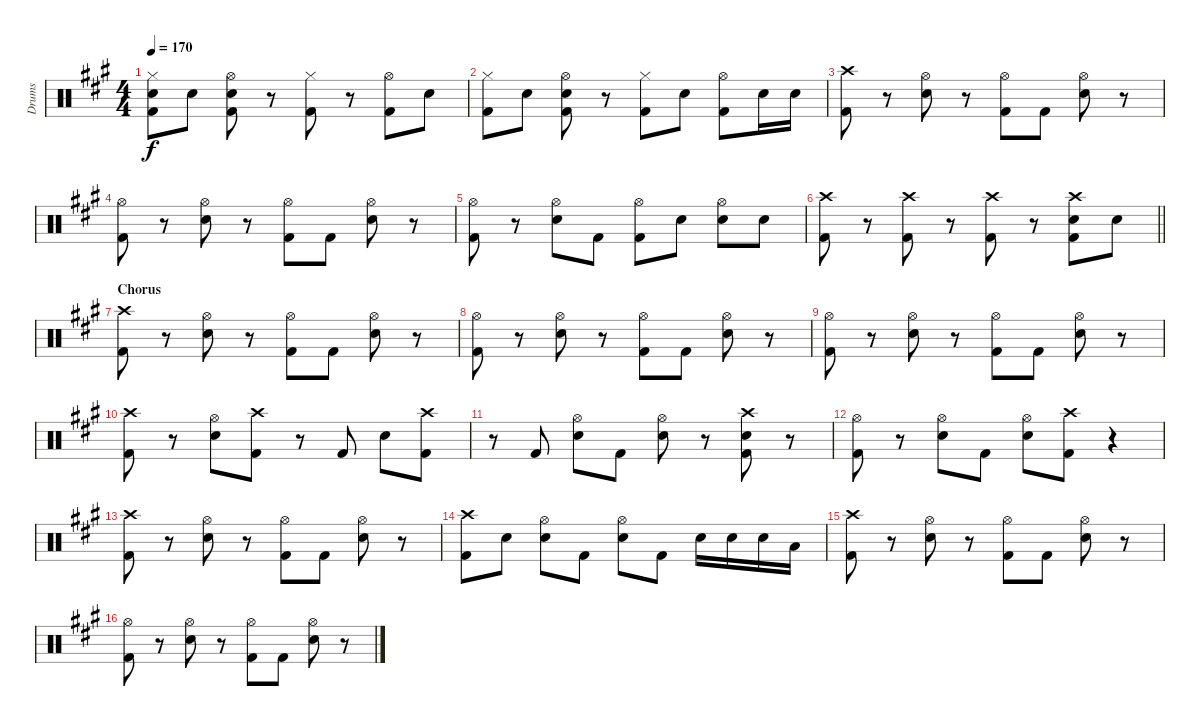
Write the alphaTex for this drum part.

\track ("Drums" "Drums") {instrument percussion}
\staff {score}
\articulation defaults
\ts (4 4)
\tempo 170
\clef neutral
\ks a
("Hi-Hat (closed)" "Snare (hit) 2" "Kick (hit) 2").8{dy f} "Snare (hit) 2".8 ("Hi-Hat (open)" "Snare (hit) 2" "Kick (hit) 2").8 r.8 ("Hi-Hat (closed)" "Kick (hit) 2").8 r.8 ("Hi-Hat (open)" "Kick (hit) 2").8 "Snare (hit) 2".8 |
("Hi-Hat (closed)" "Kick (hit) 2").8 "Snare (hit) 2".8 ("Hi-Hat (open)" "Snare (hit) 2" "Kick (hit) 2").8 r.8 ("Hi-Hat (closed)" "Kick (hit) 2").8 "Snare (hit) 2".8 ("Hi-Hat (open)" "Kick (hit) 2").8 "Snare (hit) 2".16 "Snare (hit) 2".16 |
("Crash high (hit)" "Kick (hit) 2").8 r.8 ("Hi-Hat (open)" "Snare (hit) 2").8 r.8 ("Hi-Hat (open)" "Kick (hit) 2").8 "Kick (hit) 2".8 ("Hi-Hat (open)" "Snare (hit) 2").8 r.8 |
("Hi-Hat (open)" "Kick (hit) 2").8 r.8 ("Hi-Hat (open)" "Snare (hit) 2").8 r.8 ("Hi-Hat (open)" "Kick (hit) 2").8 "Kick (hit) 2".8 ("Hi-Hat (open)" "Snare (hit) 2").8 r.8 |
("Hi-Hat (open)" "Kick (hit) 2").8 r.8 ("Hi-Hat (open)" "Snare (hit) 2").8 "Kick (hit) 2".8 ("Hi-Hat (open)" "Kick (hit) 2").8 "Snare (hit) 2".8 ("Hi-Hat (open)" "Snare (hit) 2").8 "Snare (hit) 2".8 |
\barLineRight lightlight
("Crash high (hit)" "Kick (hit) 2").8 r.8 ("Crash high (hit)" "Kick (hit) 2").8 r.8 ("Crash high (hit)" "Kick (hit) 2").8 r.8 ("Crash high (hit)" "Snare (hit) 2" "Kick (hit) 2").8 "Snare (hit) 2".8 |
\section ("" "Chorus")
("Crash high (hit)" "Kick (hit) 2").8 r.8 ("Hi-Hat (open)" "Snare (hit) 2").8 r.8 ("Hi-Hat (open)" "Kick (hit) 2").8 "Kick (hit) 2".8 ("Hi-Hat (open)" "Snare (hit) 2").8 r.8 |
("Hi-Hat (open)" "Kick (hit) 2").8 r.8 ("Hi-Hat (open)" "Snare (hit) 2").8 r.8 ("Hi-Hat (open)" "Kick (hit) 2").8 "Kick (hit) 2".8 ("Hi-Hat (open)" "Snare (hit) 2").8 r.8 |
("Hi-Hat (open)" "Kick (hit) 2").8 r.8 ("Hi-Hat (open)" "Snare (hit) 2").8 r.8 ("Hi-Hat (open)" "Kick (hit) 2").8 "Kick (hit) 2".8 ("Hi-Hat (open)" "Snare (hit) 2").8 r.8 |
("Crash high (hit)" "Kick (hit) 2").8 r.8 ("Hi-Hat (open)" "Snare (hit) 2").8 ("Crash high (hit)" "Kick (hit) 2").8 r.8 "Kick (hit) 2".8 "Snare (hit) 2".8 ("Crash high (hit)" "Kick (hit) 2").8 |
r.8 "Kick (hit) 2".8 ("Hi-Hat (open)" "Snare (hit) 2").8 "Kick (hit) 2".8 ("Hi-Hat (open)" "Snare (hit) 2").8 r.8 ("Crash high (hit)" "Snare (hit) 2" "Kick (hit) 2").8 r.8 |
("Hi-Hat (open)" "Kick (hit) 2").8 r.8 ("Hi-Hat (open)" "Snare (hit) 2").8 "Kick (hit) 2".8 ("Hi-Hat (open)" "Snare (hit) 2").8 ("Crash high (hit)" "Kick (hit) 2").8 r.4 |
("Crash high (hit)" "Kick (hit) 2").8 r.8 ("Hi-Hat (open)" "Snare (hit) 2").8 r.8 ("Hi-Hat (open)" "Kick (hit) 2").8 "Kick (hit) 2".8 ("Hi-Hat (open)" "Snare (hit) 2").8 r.8 |
("Crash high (hit)" "Kick (hit) 2").8 "Snare (hit) 2".8 ("Hi-Hat (open)" "Snare (hit) 2").8 "Kick (hit) 2".8 ("Hi-Hat (open)" "Snare (hit) 2").8 "Kick (hit) 2".8 "Snare (hit) 2".16 "Snare (hit) 2".16 "Snare (hit) 2".16 "Low Tom (hit)".16 |
("Crash high (hit)" "Kick (hit) 2").8 r.8 ("Hi-Hat (open)" "Snare (hit) 2").8 r.8 ("Hi-Hat (open)" "Kick (hit) 2").8 "Kick (hit) 2".8 ("Hi-Hat (open)" "Snare (hit) 2").8 r.8 |
("Hi-Hat (open)" "Kick (hit) 2").8 r.8 ("Hi-Hat (open)" "Snare (hit) 2").8 r.8 ("Hi-Hat (open)" "Kick (hit) 2").8 "Kick (hit) 2".8 ("Hi-Hat (open)" "Snare (hit) 2").8 r.8
